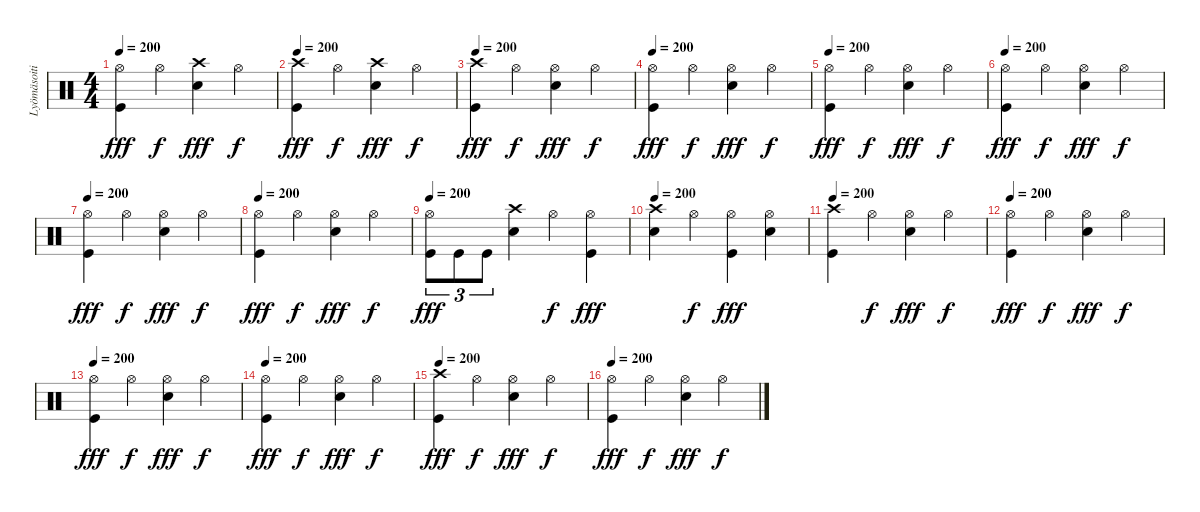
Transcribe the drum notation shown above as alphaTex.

\track ("Lyömäsoitin" "Lyömäsoiti") {instrument percussion}
\staff {score}
\articulation defaults
\ts (4 4)
\tempo 200
\clef neutral
\ks c
("Hi-Hat (open)" "Kick (hit)").4{dy fff} "Hi-Hat (open)".4{dy f} ("Crash high (hit)" "Electric Snare (hit)").4{dy fff} "Hi-Hat (open)".4{dy f} |
\tempo 200
("Crash high (hit)" "Kick (hit)").4{dy fff} "Hi-Hat (open)".4{dy f} ("Crash high (hit)" "Electric Snare (hit)").4{dy fff} "Hi-Hat (open)".4{dy f} |
\tempo 200
("Crash high (hit)" "Kick (hit)").4{dy fff} "Hi-Hat (open)".4{dy f} ("Hi-Hat (open)" "Electric Snare (hit)").4{dy fff} "Hi-Hat (open)".4{dy f} |
\tempo 200
("Hi-Hat (open)" "Kick (hit)").4{dy fff} "Hi-Hat (open)".4{dy f} ("Hi-Hat (open)" "Electric Snare (hit)").4{dy fff} "Hi-Hat (open)".4{dy f} |
\tempo 200
("Hi-Hat (open)" "Kick (hit)").4{dy fff} "Hi-Hat (open)".4{dy f} ("Hi-Hat (open)" "Electric Snare (hit)").4{dy fff} "Hi-Hat (open)".4{dy f} |
\tempo 200
("Hi-Hat (open)" "Kick (hit)").4{dy fff} "Hi-Hat (open)".4{dy f} ("Hi-Hat (open)" "Electric Snare (hit)").4{dy fff} "Hi-Hat (open)".4{dy f} |
\tempo 200
("Hi-Hat (open)" "Kick (hit)").4{dy fff} "Hi-Hat (open)".4{dy f} ("Hi-Hat (open)" "Electric Snare (hit)").4{dy fff} "Hi-Hat (open)".4{dy f} |
\tempo 200
("Hi-Hat (open)" "Kick (hit)").4{dy fff} "Hi-Hat (open)".4{dy f} ("Hi-Hat (open)" "Electric Snare (hit)").4{dy fff} "Hi-Hat (open)".4{dy f} |
\tempo 200
("Hi-Hat (open)" "Kick (hit)").8{tu (3 2) dy fff} "Kick (hit)".8{tu (3 2)} "Kick (hit)".8{tu (3 2)} ("Crash high (hit)" "Electric Snare (hit)").4 "Hi-Hat (open)".4{dy f} ("Hi-Hat (open)" "Kick (hit)").4{dy fff} |
\tempo 200
("Crash high (hit)" "Electric Snare (hit)").4 "Hi-Hat (open)".4{dy f} ("Hi-Hat (open)" "Kick (hit)").4{dy fff} ("Hi-Hat (open)" "Electric Snare (hit)").4 |
\tempo 200
("Crash high (hit)" "Kick (hit)").4 "Hi-Hat (open)".4{dy f} ("Hi-Hat (open)" "Electric Snare (hit)").4{dy fff} "Hi-Hat (open)".4{dy f} |
\tempo 200
("Hi-Hat (open)" "Kick (hit)").4{dy fff} "Hi-Hat (open)".4{dy f} ("Hi-Hat (open)" "Electric Snare (hit)").4{dy fff} "Hi-Hat (open)".4{dy f} |
\tempo 200
("Hi-Hat (open)" "Kick (hit)").4{dy fff} "Hi-Hat (open)".4{dy f} ("Hi-Hat (open)" "Electric Snare (hit)").4{dy fff} "Hi-Hat (open)".4{dy f} |
\tempo 200
("Hi-Hat (open)" "Kick (hit)").4{dy fff} "Hi-Hat (open)".4{dy f} ("Hi-Hat (open)" "Electric Snare (hit)").4{dy fff} "Hi-Hat (open)".4{dy f} |
\tempo 200
("Crash high (hit)" "Kick (hit)").4{dy fff} "Hi-Hat (open)".4{dy f} ("Hi-Hat (open)" "Electric Snare (hit)").4{dy fff} "Hi-Hat (open)".4{dy f} |
\tempo 200
("Hi-Hat (open)" "Kick (hit)").4{dy fff} "Hi-Hat (open)".4{dy f} ("Hi-Hat (open)" "Electric Snare (hit)").4{dy fff} "Hi-Hat (open)".4{dy f}
